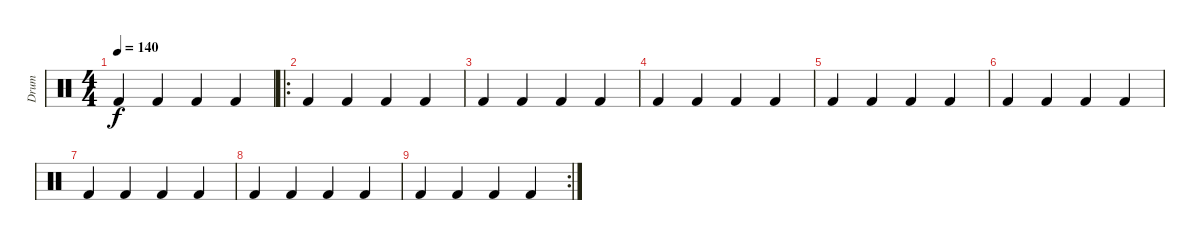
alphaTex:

\track ("Drum" "Drum") {instrument percussion}
\staff {score}
\articulation defaults
\ts (4 4)
\tempo 140
\clef neutral
\ks c "Kick (hit) 2".4{dy f} "Kick (hit) 2".4 "Kick (hit) 2".4 "Kick (hit) 2".4
|
\ro "Kick (hit) 2".4 "Kick (hit) 2".4 "Kick (hit) 2".4 "Kick (hit) 2".4
|
"Kick (hit) 2".4 "Kick (hit) 2".4 "Kick (hit) 2".4 "Kick (hit) 2".4 |
"Kick (hit) 2".4 "Kick (hit) 2".4 "Kick (hit) 2".4 "Kick (hit) 2".4 |
"Kick (hit) 2".4 "Kick (hit) 2".4 "Kick (hit) 2".4 "Kick (hit) 2".4 |
"Kick (hit) 2".4 "Kick (hit) 2".4 "Kick (hit) 2".4 "Kick (hit) 2".4 |
"Kick (hit) 2".4 "Kick (hit) 2".4 "Kick (hit) 2".4 "Kick (hit) 2".4 |
"Kick (hit) 2".4 "Kick (hit) 2".4 "Kick (hit) 2".4 "Kick (hit) 2".4 |
\rc 2 "Kick (hit) 2".4 "Kick (hit) 2".4 "Kick (hit) 2".4 "Kick (hit) 2".4
